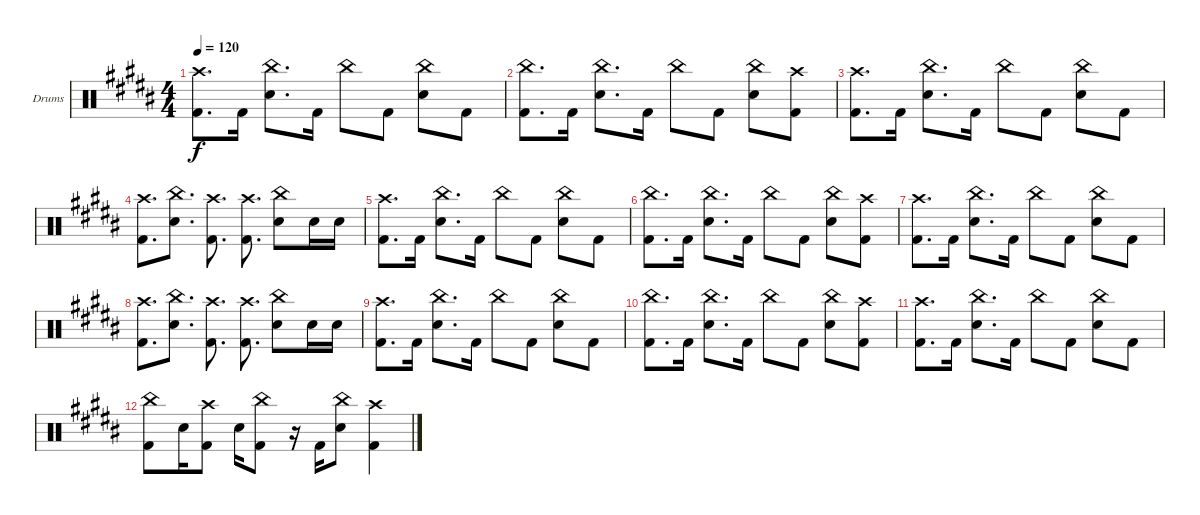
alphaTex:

\bracketExtendMode groupsimilarinstruments
\firstSystemTrackNameOrientation horizontal
\otherSystemsTrackNameOrientation horizontal
\track ("Drumkit" "Drums") {instrument percussion}
\staff {score}
\articulation defaults
\ts (4 4)
\tempo 120
\clef neutral
\ks g#minor
("Crash high (hit)"{acc forcenatural} "Kick (hit) 2"{acc forcenatural}).8{d dy f} "Kick (hit) 2"{acc forcenatural}.16 ("China (hit)"{acc forcenatural} "Snare (hit) 2"{acc forcenatural}).8{d} "Kick (hit) 2"{acc forcenatural}.16 "China (hit)"{acc forcenatural}.8 "Kick (hit) 2"{acc forcenatural}.8 ("China (hit)"{acc forcenatural} "Snare (hit) 2"{acc forcenatural}).8 "Kick (hit) 2"{acc forcenatural}.8 |
("China (hit)"{acc forcenatural} "Kick (hit) 2"{acc forcenatural}).8{d} "Kick (hit) 2"{acc forcenatural}.16 ("China (hit)"{acc forcenatural} "Snare (hit) 2"{acc forcenatural}).8{d} "Kick (hit) 2"{acc forcenatural}.16 "China (hit)"{acc forcenatural}.8 "Kick (hit) 2"{acc forcenatural}.8 ("China (hit)"{acc forcenatural} "Snare (hit) 2"{acc forcenatural}).8 ("Crash high (hit)"{acc forcenatural} "Kick (hit) 2"{acc forcenatural}).8 |
("Crash high (hit)"{acc forcenatural} "Kick (hit) 2"{acc forcenatural}).8{d} "Kick (hit) 2"{acc forcenatural}.16 ("China (hit)"{acc forcenatural} "Snare (hit) 2"{acc forcenatural}).8{d} "Kick (hit) 2"{acc forcenatural}.16 "China (hit)"{acc forcenatural}.8 "Kick (hit) 2"{acc forcenatural}.8 ("China (hit)"{acc forcenatural} "Snare (hit) 2"{acc forcenatural}).8 "Kick (hit) 2"{acc forcenatural}.8 |
("Crash high (hit)"{acc forcenatural} "Kick (hit) 2"{acc forcenatural}).8{d} ("China (hit)"{acc forcenatural} "Snare (hit) 2"{acc forcenatural}).8{d} ("Crash high (hit)"{acc forcenatural} "Kick (hit) 2"{acc forcenatural}).8{d} ("Crash high (hit)"{acc forcenatural} "Kick (hit) 2"{acc forcenatural}).8{d} ("China (hit)"{acc forcenatural} "Snare (hit) 2"{acc forcenatural}).8 "Snare (hit) 2"{acc forcenatural}.16 "Snare (hit) 2"{acc forcenatural}.16 |
("Crash high (hit)"{acc forcenatural} "Kick (hit) 2"{acc forcenatural}).8{d} "Kick (hit) 2"{acc forcenatural}.16 ("China (hit)"{acc forcenatural} "Snare (hit) 2"{acc forcenatural}).8{d} "Kick (hit) 2"{acc forcenatural}.16 "China (hit)"{acc forcenatural}.8 "Kick (hit) 2"{acc forcenatural}.8 ("China (hit)"{acc forcenatural} "Snare (hit) 2"{acc forcenatural}).8 "Kick (hit) 2"{acc forcenatural}.8 |
("China (hit)"{acc forcenatural} "Kick (hit) 2"{acc forcenatural}).8{d} "Kick (hit) 2"{acc forcenatural}.16 ("China (hit)"{acc forcenatural} "Snare (hit) 2"{acc forcenatural}).8{d} "Kick (hit) 2"{acc forcenatural}.16 "China (hit)"{acc forcenatural}.8 "Kick (hit) 2"{acc forcenatural}.8 ("China (hit)"{acc forcenatural} "Snare (hit) 2"{acc forcenatural}).8 ("Crash high (hit)"{acc forcenatural} "Kick (hit) 2"{acc forcenatural}).8 |
("Crash high (hit)"{acc forcenatural} "Kick (hit) 2"{acc forcenatural}).8{d} "Kick (hit) 2"{acc forcenatural}.16 ("China (hit)"{acc forcenatural} "Snare (hit) 2"{acc forcenatural}).8{d} "Kick (hit) 2"{acc forcenatural}.16 "China (hit)"{acc forcenatural}.8 "Kick (hit) 2"{acc forcenatural}.8 ("China (hit)"{acc forcenatural} "Snare (hit) 2"{acc forcenatural}).8 "Kick (hit) 2"{acc forcenatural}.8 |
("Crash high (hit)"{acc forcenatural} "Kick (hit) 2"{acc forcenatural}).8{d} ("China (hit)"{acc forcenatural} "Snare (hit) 2"{acc forcenatural}).8{d} ("Crash high (hit)"{acc forcenatural} "Kick (hit) 2"{acc forcenatural}).8{d} ("Crash high (hit)"{acc forcenatural} "Kick (hit) 2"{acc forcenatural}).8{d} ("China (hit)"{acc forcenatural} "Snare (hit) 2"{acc forcenatural}).8 "Snare (hit) 2"{acc forcenatural}.16 "Snare (hit) 2"{acc forcenatural}.16 |
("Crash high (hit)"{acc forcenatural} "Kick (hit) 2"{acc forcenatural}).8{d} "Kick (hit) 2"{acc forcenatural}.16 ("China (hit)"{acc forcenatural} "Snare (hit) 2"{acc forcenatural}).8{d} "Kick (hit) 2"{acc forcenatural}.16 "China (hit)"{acc forcenatural}.8 "Kick (hit) 2"{acc forcenatural}.8 ("China (hit)"{acc forcenatural} "Snare (hit) 2"{acc forcenatural}).8 "Kick (hit) 2"{acc forcenatural}.8 |
("China (hit)"{acc forcenatural} "Kick (hit) 2"{acc forcenatural}).8{d} "Kick (hit) 2"{acc forcenatural}.16 ("China (hit)"{acc forcenatural} "Snare (hit) 2"{acc forcenatural}).8{d} "Kick (hit) 2"{acc forcenatural}.16 "China (hit)"{acc forcenatural}.8 "Kick (hit) 2"{acc forcenatural}.8 ("China (hit)"{acc forcenatural} "Snare (hit) 2"{acc forcenatural}).8 ("Crash high (hit)"{acc forcenatural} "Kick (hit) 2"{acc forcenatural}).8 |
("Crash high (hit)"{acc forcenatural} "Kick (hit) 2"{acc forcenatural}).8{d} "Kick (hit) 2"{acc forcenatural}.16 ("China (hit)"{acc forcenatural} "Snare (hit) 2"{acc forcenatural}).8{d} "Kick (hit) 2"{acc forcenatural}.16 "China (hit)"{acc forcenatural}.8 "Kick (hit) 2"{acc forcenatural}.8 ("China (hit)"{acc forcenatural} "Snare (hit) 2"{acc forcenatural}).8 "Kick (hit) 2"{acc forcenatural}.8 |
("China (hit)"{acc forcenatural} "Kick (hit) 2"{acc forcenatural}).8 "Snare (hit) 2"{acc forcenatural}.16 ("Crash high (hit)"{acc forcenatural} "Kick (hit) 2"{acc forcenatural}).8 "Snare (hit) 2"{acc forcenatural}.16 ("China (hit)"{acc forcenatural} "Kick (hit) 2"{acc forcenatural}).8 r.16 "Kick (hit) 2"{acc forcenatural}.16 ("China (hit)"{acc forcenatural} "Snare (hit) 2"{acc forcenatural}).8 ("Crash high (hit)"{acc forcenatural} "Kick (hit) 2"{acc forcenatural}).4
